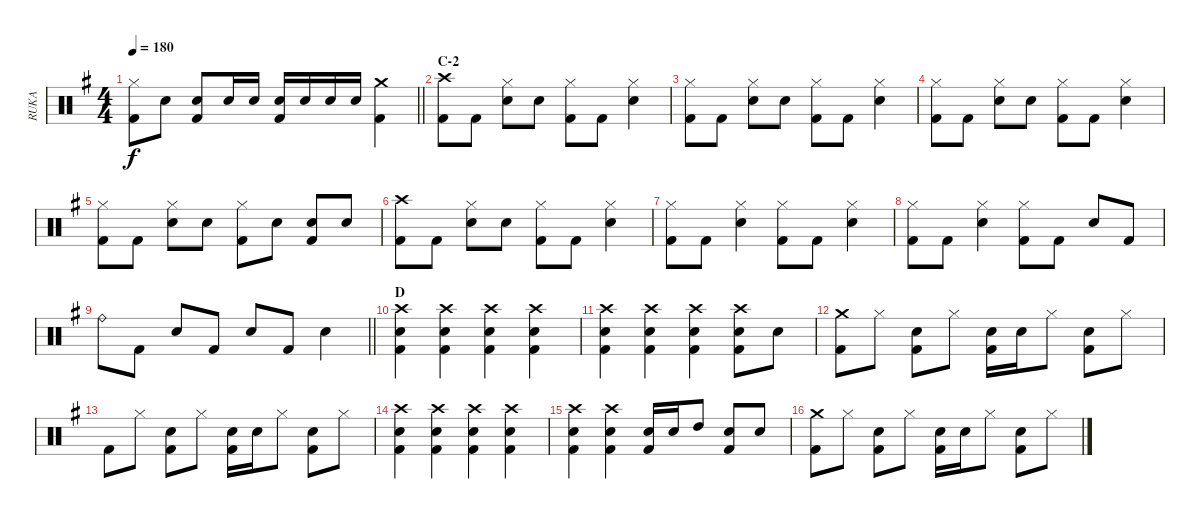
\track ("RUKA" "RUKA") {instrument percussion}
\staff {score}
\articulation defaults
\ts (4 4)
\tempo 180
\clef neutral
\barLineRight lightlight
\ks g
("Hi-Hat (closed)" "Kick (hit) 2").8{dy f} "Snare (hit) 2".8 ("Snare (hit) 2" "Kick (hit) 2").8 "Snare (hit) 2".16 "Snare (hit) 2".16 ("Snare (hit) 2" "Kick (hit) 2").16 "Snare (hit) 2".16 "Snare (hit) 2".16 "Snare (hit) 2".16 ("Crash medium (hit)" "Kick (hit) 2").4 |
\section ("" "C-2")
("Crash high (hit)" "Kick (hit) 2").8 "Kick (hit) 2".8 ("Hi-Hat (closed)" "Snare (hit) 2").8 "Snare (hit) 2".8 ("Hi-Hat (closed)" "Kick (hit) 2").8 "Kick (hit) 2".8 ("Hi-Hat (closed)" "Snare (hit) 2").4 |
("Hi-Hat (closed)" "Kick (hit) 2").8 "Kick (hit) 2".8 ("Hi-Hat (closed)" "Snare (hit) 2").8 "Snare (hit) 2".8 ("Hi-Hat (closed)" "Kick (hit) 2").8 "Kick (hit) 2".8 ("Hi-Hat (closed)" "Snare (hit) 2").4 |
("Hi-Hat (closed)" "Kick (hit) 2").8 "Kick (hit) 2".8 ("Hi-Hat (closed)" "Snare (hit) 2").8 "Snare (hit) 2".8 ("Hi-Hat (closed)" "Kick (hit) 2").8 "Kick (hit) 2".8 ("Hi-Hat (closed)" "Snare (hit) 2").4 |
("Hi-Hat (closed)" "Kick (hit) 2").8 "Kick (hit) 2".8 ("Hi-Hat (closed)" "Snare (hit) 2").8 "Snare (hit) 2".8 ("Hi-Hat (closed)" "Kick (hit) 2").8 "Snare (hit) 2".8 ("Snare (hit) 2" "Kick (hit) 2").8 "Snare (hit) 2".8 |
("Crash high (hit)" "Kick (hit) 2").8 "Kick (hit) 2".8 ("Hi-Hat (closed)" "Snare (hit) 2").8 "Snare (hit) 2".8 ("Hi-Hat (closed)" "Kick (hit) 2").8 "Kick (hit) 2".8 ("Hi-Hat (closed)" "Snare (hit) 2").4 |
("Hi-Hat (closed)" "Kick (hit) 2").8 "Kick (hit) 2".8 ("Hi-Hat (closed)" "Snare (hit) 2").4 ("Hi-Hat (closed)" "Kick (hit) 2").8 "Kick (hit) 2".8 ("Hi-Hat (closed)" "Snare (hit) 2").4 |
("Hi-Hat (closed)" "Kick (hit) 2").8 "Kick (hit) 2".8 ("Hi-Hat (closed)" "Snare (hit) 2").4 ("Hi-Hat (closed)" "Kick (hit) 2").8 "Kick (hit) 2".8 "Snare (hit) 2".8 "Kick (hit) 2".8 |
\barLineRight lightlight "Ride (bell)".8 "Kick (hit) 2".8 "Snare (hit) 2".8 "Kick (hit) 2".8 "Snare (hit) 2".8 "Kick (hit) 2".8 "Snare (hit) 2".4
|
\section ("" "D")
("Crash high (hit)" "Snare (hit) 2" "Kick (hit) 2").4 ("Crash high (hit)" "Snare (hit) 2" "Kick (hit) 2").4 ("Crash high (hit)" "Snare (hit) 2" "Kick (hit) 2").4 ("Crash high (hit)" "Snare (hit) 2" "Kick (hit) 2").4 |
("Crash high (hit)" "Snare (hit) 2" "Kick (hit) 2").4 ("Crash high (hit)" "Snare (hit) 2" "Kick (hit) 2").4 ("Crash high (hit)" "Snare (hit) 2" "Kick (hit) 2").4 ("Crash high (hit)" "Snare (hit) 2" "Kick (hit) 2").8 "Snare (hit) 2".8 |
("Crash medium (hit)" "Kick (hit) 2").8 "Hi-Hat (closed)".8 ("Snare (hit) 2" "Kick (hit) 2").8 "Hi-Hat (closed)".8 ("Snare (hit) 2" "Kick (hit) 2").16 "Snare (hit) 2".16 "Hi-Hat (closed)".8 ("Snare (hit) 2" "Kick (hit) 2").8 "Hi-Hat (closed)".8 |
"Kick (hit) 2".8 "Hi-Hat (closed)".8 ("Snare (hit) 2" "Kick (hit) 2").8 "Hi-Hat (closed)".8 ("Snare (hit) 2" "Kick (hit) 2").16 "Snare (hit) 2".16 "Hi-Hat (closed)".8 ("Snare (hit) 2" "Kick (hit) 2").8 "Hi-Hat (closed)".8 |
("Crash high (hit)" "Snare (hit) 2" "Kick (hit) 2").4 ("Crash high (hit)" "Snare (hit) 2" "Kick (hit) 2").4 ("Crash high (hit)" "Snare (hit) 2" "Kick (hit) 2").4 ("Crash high (hit)" "Snare (hit) 2" "Kick (hit) 2").4 |
("Crash high (hit)" "Snare (hit) 2" "Kick (hit) 2").4 ("Crash high (hit)" "Snare (hit) 2" "Kick (hit) 2").4 ("Snare (hit) 2" "Kick (hit) 2").16 "Snare (hit) 2".16 "High Tom (hit)".8 ("Snare (hit) 2" "Kick (hit) 2").8 "Snare (hit) 2".8 |
("Crash medium (hit)" "Kick (hit) 2").8 "Hi-Hat (closed)".8 ("Snare (hit) 2" "Kick (hit) 2").8 "Hi-Hat (closed)".8 ("Snare (hit) 2" "Kick (hit) 2").16 "Snare (hit) 2".16 "Hi-Hat (closed)".8 ("Snare (hit) 2" "Kick (hit) 2").8 "Hi-Hat (closed)".8
